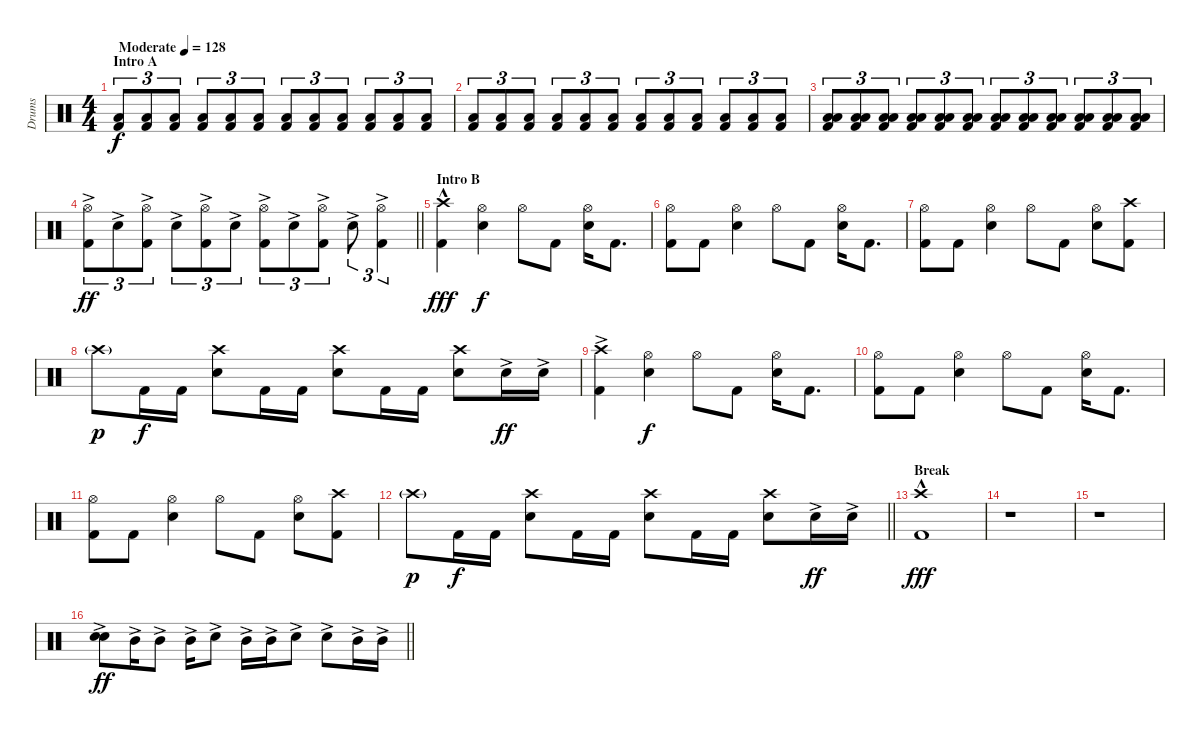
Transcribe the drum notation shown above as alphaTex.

\track ("Drums" "Drums") {instrument percussion}
\staff {score}
\articulation defaults
\ts (4 4)
\section ("" "Intro A")
\tempo (128 "Moderate")
\clef neutral
\ks c
("Low Floor Tom (hit)" "Kick (hit) 2").8{tu (3 2) dy f} ("Low Floor Tom (hit)" "Kick (hit) 2").8{tu (3 2)} ("Low Floor Tom (hit)" "Kick (hit) 2").8{tu (3 2)} ("Low Floor Tom (hit)" "Kick (hit) 2").8{tu (3 2)} ("Low Floor Tom (hit)" "Kick (hit) 2").8{tu (3 2)} ("Low Floor Tom (hit)" "Kick (hit) 2").8{tu (3 2)} ("Low Floor Tom (hit)" "Kick (hit) 2").8{tu (3 2)} ("Low Floor Tom (hit)" "Kick (hit) 2").8{tu (3 2)} ("Low Floor Tom (hit)" "Kick (hit) 2").8{tu (3 2)} ("Low Floor Tom (hit)" "Kick (hit) 2").8{tu (3 2)} ("Low Floor Tom (hit)" "Kick (hit) 2").8{tu (3 2)} ("Low Floor Tom (hit)" "Kick (hit) 2").8{tu (3 2)} |
("Low Floor Tom (hit)" "Kick (hit) 2").8{tu (3 2)} ("Low Floor Tom (hit)" "Kick (hit) 2").8{tu (3 2)} ("Low Floor Tom (hit)" "Kick (hit) 2").8{tu (3 2)} ("Low Floor Tom (hit)" "Kick (hit) 2").8{tu (3 2)} ("Low Floor Tom (hit)" "Kick (hit) 2").8{tu (3 2)} ("Low Floor Tom (hit)" "Kick (hit) 2").8{tu (3 2)} ("Low Floor Tom (hit)" "Kick (hit) 2").8{tu (3 2)} ("Low Floor Tom (hit)" "Kick (hit) 2").8{tu (3 2)} ("Low Floor Tom (hit)" "Kick (hit) 2").8{tu (3 2)} ("Low Floor Tom (hit)" "Kick (hit) 2").8{tu (3 2)} ("Low Floor Tom (hit)" "Kick (hit) 2").8{tu (3 2)} ("Low Floor Tom (hit)" "Kick (hit) 2").8{tu (3 2)} |
("Low Tom (hit)" "Low Floor Tom (hit)" "Kick (hit) 2").8{tu (3 2)} ("Low Tom (hit)" "Low Floor Tom (hit)" "Kick (hit) 2").8{tu (3 2)} ("Low Tom (hit)" "Low Floor Tom (hit)" "Kick (hit) 2").8{tu (3 2)} ("Low Tom (hit)" "Low Floor Tom (hit)" "Kick (hit) 2").8{tu (3 2)} ("Low Tom (hit)" "Low Floor Tom (hit)" "Kick (hit) 2").8{tu (3 2)} ("Low Tom (hit)" "Low Floor Tom (hit)" "Kick (hit) 2").8{tu (3 2)} ("Low Tom (hit)" "Low Floor Tom (hit)" "Kick (hit) 2").8{tu (3 2)} ("Low Tom (hit)" "Low Floor Tom (hit)" "Kick (hit) 2").8{tu (3 2)} ("Low Tom (hit)" "Low Floor Tom (hit)" "Kick (hit) 2").8{tu (3 2)} ("Low Tom (hit)" "Low Floor Tom (hit)" "Kick (hit) 2").8{tu (3 2)} ("Low Tom (hit)" "Low Floor Tom (hit)" "Kick (hit) 2").8{tu (3 2)} ("Low Tom (hit)" "Low Floor Tom (hit)" "Kick (hit) 2").8{tu (3 2)} |
\barLineRight lightlight
("Hi-Hat (open)"{ac} "Kick (hit) 2"{ac}).8{tu (3 2) dy ff} "Electric Snare (hit)"{ac}.8{tu (3 2)} ("Hi-Hat (open)"{ac} "Kick (hit) 2"{ac}).8{tu (3 2)} "Electric Snare (hit)"{ac}.8{tu (3 2)} ("Hi-Hat (open)"{ac} "Kick (hit) 2"{ac}).8{tu (3 2)} "Electric Snare (hit)"{ac}.8{tu (3 2)} ("Hi-Hat (open)"{ac} "Kick (hit) 2"{ac}).8{tu (3 2)} "Electric Snare (hit)"{ac}.8{tu (3 2)} ("Hi-Hat (open)"{ac} "Kick (hit) 2"{ac}).8{tu (3 2)} "Electric Snare (hit)"{ac}.8{tu (3 2)} ("Hi-Hat (open)"{ac} "Kick (hit) 2"{ac}).4{tu (3 2)} |
\section ("" "Intro B")
("Crash high (hit)"{hac} "Kick (hit) 2"{hac}).4{dy fff} ("Hi-Hat (open)" "Electric Snare (hit)").4{dy f} "Hi-Hat (open)".8 "Kick (hit) 2".8 ("Hi-Hat (open)" "Electric Snare (hit)").16 "Kick (hit) 2".8{d} |
("Hi-Hat (open)" "Kick (hit) 2").8 "Kick (hit) 2".8 ("Hi-Hat (open)" "Electric Snare (hit)").4 "Hi-Hat (open)".8 "Kick (hit) 2".8 ("Hi-Hat (open)" "Electric Snare (hit)").16 "Kick (hit) 2".8{d} |
("Hi-Hat (open)" "Kick (hit) 2").8 "Kick (hit) 2".8 ("Hi-Hat (open)" "Electric Snare (hit)").4 "Hi-Hat (open)".8 "Kick (hit) 2".8 ("Hi-Hat (open)" "Electric Snare (hit)").8 ("Crash high (hit)" "Kick (hit) 2").8 |
"Crash high (hit)"{g}.8{dy p} "Kick (hit) 2".16{dy f} "Kick (hit) 2".16 ("Crash high (hit)" "Electric Snare (hit)").8 "Kick (hit) 2".16 "Kick (hit) 2".16 ("Crash high (hit)" "Electric Snare (hit)").8 "Kick (hit) 2".16 "Kick (hit) 2".16 ("Crash high (hit)" "Electric Snare (hit)").8 "Electric Snare (hit)"{ac}.16{dy ff} "Electric Snare (hit)"{ac}.16 |
("Crash high (hit)"{ac} "Kick (hit) 2"{ac}).4 ("Hi-Hat (open)" "Electric Snare (hit)").4{dy f} "Hi-Hat (open)".8 "Kick (hit) 2".8 ("Hi-Hat (open)" "Electric Snare (hit)").16 "Kick (hit) 2".8{d} |
("Hi-Hat (open)" "Kick (hit) 2").8 "Kick (hit) 2".8 ("Hi-Hat (open)" "Electric Snare (hit)").4 "Hi-Hat (open)".8 "Kick (hit) 2".8 ("Hi-Hat (open)" "Electric Snare (hit)").16 "Kick (hit) 2".8{d} |
("Hi-Hat (open)" "Kick (hit) 2").8 "Kick (hit) 2".8 ("Hi-Hat (open)" "Electric Snare (hit)").4 "Hi-Hat (open)".8 "Kick (hit) 2".8 ("Hi-Hat (open)" "Electric Snare (hit)").8 ("Crash high (hit)" "Kick (hit) 2").8 |
\barLineRight lightlight "Crash high (hit)"{g}.8{dy p} "Kick (hit) 2".16{dy f} "Kick (hit) 2".16
("Crash high (hit)" "Electric Snare (hit)").8 "Kick (hit) 2".16 "Kick (hit) 2".16 ("Crash high (hit)" "Electric Snare (hit)").8 "Kick (hit) 2".16 "Kick (hit) 2".16 ("Crash high (hit)" "Electric Snare (hit)").8 "Electric Snare (hit)"{ac}.16{dy ff} "Electric Snare (hit)"{ac}.16 |
\section ("" "Break")
("Crash high (hit)"{hac} "Kick (hit) 2"{hac}).1{dy fff} |
r.1 |
r.1 |
\barLineRight lightlight
("Electric Snare (hit)"{ac} "Electric Snare (hit)"{ac}).8{dy ff} "Mid Tom (hit)"{ac}.16 "Mid Tom (hit)"{ac}.8 "Mid Tom (hit)"{ac}.16 "Electric Snare (hit)"{ac}.8 "Mid Tom (hit)"{ac}.16 "Mid Tom (hit)"{ac}.16 "Electric Snare (hit)"{ac}.8 "Electric Snare (hit)"{ac}.8 "Mid Tom (hit)"{ac}.16 "Mid Tom (hit)"{ac}.16
